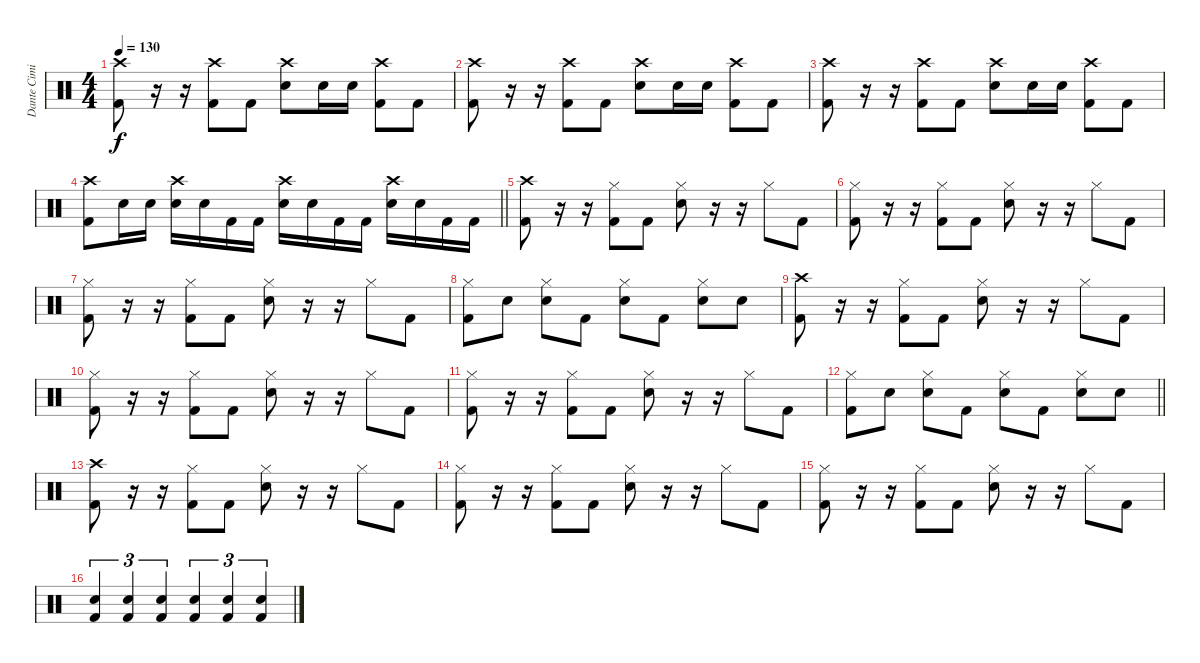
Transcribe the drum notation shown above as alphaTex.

\track ("Dante Cimino" "Dante Cimi") {instrument percussion}
\staff {score}
\articulation defaults
\ts (4 4)
\tempo 130
\clef neutral
\ks c
("Crash high (hit)" "Kick (hit) 2").8{dy f} r.16 r.16 ("Crash high (hit)" "Kick (hit) 2").8 "Kick (hit) 2".8 ("Crash high (hit)" "Electric Snare (hit)").8 "Electric Snare (hit)".16 "Electric Snare (hit)".16 ("Crash high (hit)" "Kick (hit) 2").8 "Kick (hit) 2".8 |
("Crash high (hit)" "Kick (hit) 2").8 r.16 r.16 ("Crash high (hit)" "Kick (hit) 2").8 "Kick (hit) 2".8 ("Crash high (hit)" "Electric Snare (hit)").8 "Electric Snare (hit)".16 "Electric Snare (hit)".16 ("Crash high (hit)" "Kick (hit) 2").8 "Kick (hit) 2".8 |
("Crash high (hit)" "Kick (hit) 2").8 r.16 r.16 ("Crash high (hit)" "Kick (hit) 2").8 "Kick (hit) 2".8 ("Crash high (hit)" "Electric Snare (hit)").8 "Electric Snare (hit)".16 "Electric Snare (hit)".16 ("Crash high (hit)" "Kick (hit) 2").8 "Kick (hit) 2".8 |
\barLineRight lightlight
("Crash high (hit)" "Kick (hit) 2").8 "Electric Snare (hit)".16 "Electric Snare (hit)".16 ("Crash high (hit)" "Electric Snare (hit)").16 "Electric Snare (hit)".16 "Kick (hit) 2".16 "Kick (hit) 2".16 ("Crash high (hit)" "Electric Snare (hit)").16 "Electric Snare (hit)".16 "Kick (hit) 2".16 "Kick (hit) 2".16 ("Crash high (hit)" "Electric Snare (hit)").16 "Electric Snare (hit)".16 "Kick (hit) 2".16 "Kick (hit) 2".16 |
("Crash high (hit)" "Kick (hit) 2").8 r.16 r.16 ("Hi-Hat (closed)" "Kick (hit) 2").8 "Kick (hit) 2".8 ("Hi-Hat (closed)" "Electric Snare (hit)").8 r.16 r.16 "Hi-Hat (closed)".8 "Kick (hit) 2".8 |
("Hi-Hat (closed)" "Kick (hit) 2").8 r.16 r.16 ("Hi-Hat (closed)" "Kick (hit) 2").8 "Kick (hit) 2".8 ("Hi-Hat (closed)" "Electric Snare (hit)").8 r.16 r.16 "Hi-Hat (closed)".8 "Kick (hit) 2".8 |
("Hi-Hat (closed)" "Kick (hit) 2").8 r.16 r.16 ("Hi-Hat (closed)" "Kick (hit) 2").8 "Kick (hit) 2".8 ("Hi-Hat (closed)" "Electric Snare (hit)").8 r.16 r.16 "Hi-Hat (closed)".8 "Kick (hit) 2".8 |
("Hi-Hat (closed)" "Kick (hit) 2").8 "Electric Snare (hit)".8 ("Hi-Hat (closed)" "Electric Snare (hit)").8 "Kick (hit) 2".8 ("Hi-Hat (closed)" "Electric Snare (hit)").8 "Kick (hit) 2".8 ("Hi-Hat (closed)" "Electric Snare (hit)").8 "Electric Snare (hit)".8 |
("Crash high (hit)" "Kick (hit) 2").8 r.16 r.16 ("Hi-Hat (closed)" "Kick (hit) 2").8 "Kick (hit) 2".8 ("Hi-Hat (closed)" "Electric Snare (hit)").8 r.16 r.16 "Hi-Hat (closed)".8 "Kick (hit) 2".8 |
("Hi-Hat (closed)" "Kick (hit) 2").8 r.16 r.16 ("Hi-Hat (closed)" "Kick (hit) 2").8 "Kick (hit) 2".8 ("Hi-Hat (closed)" "Electric Snare (hit)").8 r.16 r.16 "Hi-Hat (closed)".8 "Kick (hit) 2".8 |
("Hi-Hat (closed)" "Kick (hit) 2").8 r.16 r.16 ("Hi-Hat (closed)" "Kick (hit) 2").8 "Kick (hit) 2".8 ("Hi-Hat (closed)" "Electric Snare (hit)").8 r.16 r.16 "Hi-Hat (closed)".8 "Kick (hit) 2".8 |
\barLineRight lightlight
("Hi-Hat (closed)" "Kick (hit) 2").8 "Electric Snare (hit)".8 ("Hi-Hat (closed)" "Electric Snare (hit)").8 "Kick (hit) 2".8 ("Hi-Hat (closed)" "Electric Snare (hit)").8 "Kick (hit) 2".8 ("Hi-Hat (closed)" "Electric Snare (hit)").8 "Electric Snare (hit)".8 |
("Crash high (hit)" "Kick (hit) 2").8 r.16 r.16 ("Hi-Hat (closed)" "Kick (hit) 2").8 "Kick (hit) 2".8 ("Hi-Hat (closed)" "Electric Snare (hit)").8 r.16 r.16 "Hi-Hat (closed)".8 "Kick (hit) 2".8 |
("Hi-Hat (closed)" "Kick (hit) 2").8 r.16 r.16 ("Hi-Hat (closed)" "Kick (hit) 2").8 "Kick (hit) 2".8 ("Hi-Hat (closed)" "Electric Snare (hit)").8 r.16 r.16 "Hi-Hat (closed)".8 "Kick (hit) 2".8 |
("Hi-Hat (closed)" "Kick (hit) 2").8 r.16 r.16 ("Hi-Hat (closed)" "Kick (hit) 2").8 "Kick (hit) 2".8 ("Hi-Hat (closed)" "Electric Snare (hit)").8 r.16 r.16 "Hi-Hat (closed)".8 "Kick (hit) 2".8 |
("Electric Snare (hit)" "Kick (hit) 2").4{tu (3 2)} ("Electric Snare (hit)" "Kick (hit) 2").4{tu (3 2)} ("Electric Snare (hit)" "Kick (hit) 2").4{tu (3 2)} ("Electric Snare (hit)" "Kick (hit) 2").4{tu (3 2)} ("Electric Snare (hit)" "Kick (hit) 2").4{tu (3 2)} ("Electric Snare (hit)" "Kick (hit) 2").4{tu (3 2)}
